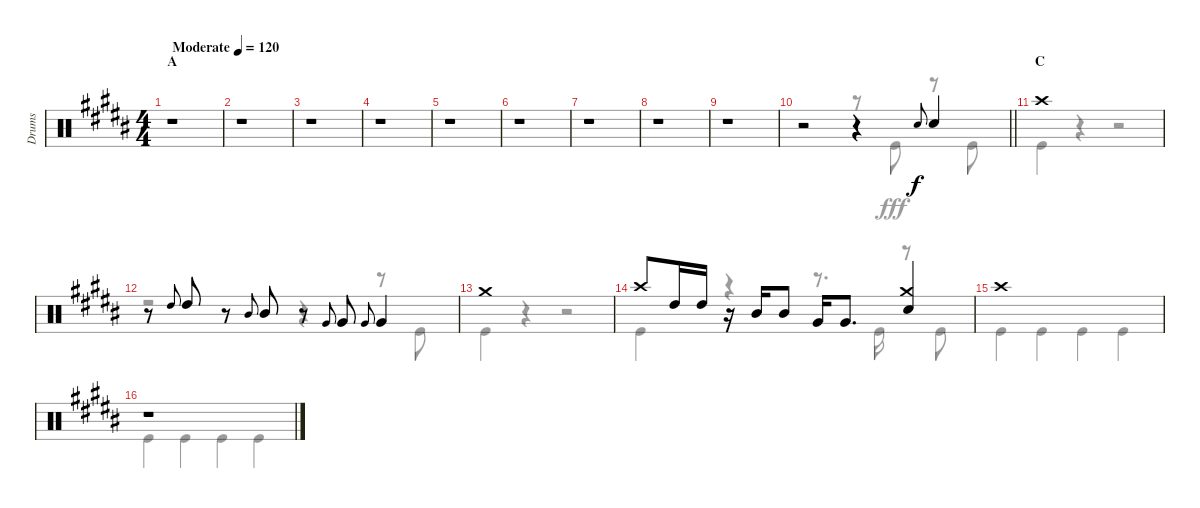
\track ("Drums" "Drums") {instrument percussion}
\staff {score}
\articulation defaults
\voice
\ts (4 4)
\section ("" "A")
\tempo (120 "Moderate")
\clef neutral
\ks b
r.1{dy f} |
r.1 |
r.1 |
r.1 |
r.1 |
r.1 |
r.1 |
r.1 |
r.1 |
\barLineRight lightlight
r.2 r.4 "Snare (hit) 2".8{gr onbeat} "Snare (hit) 2".4 |
\section ("" "C")
"Crash high (hit)".1 |
r.8 "High Tom (hit)".8{gr onbeat} "High Tom (hit)".8 r.8 "Mid Tom (hit)".8{gr onbeat} "Mid Tom (hit)".8 r.8 "Very Low Tom (hit)".8{gr onbeat} "Very Low Tom (hit)".8 "Very Low Tom (hit)".8{gr onbeat} "Very Low Tom (hit)".4 |
"Crash medium (hit)".1 |
"Crash high (hit)".8 "High Tom (hit)".16 "High Tom (hit)".16 r.16 "Mid Tom (hit)".16 "Mid Tom (hit)".8 "Very Low Tom (hit)".16 "Very Low Tom (hit)".8{d} ("Crash medium (hit)" "Snare (hit) 2").4 |
"Crash high (hit)".1 |
r.1
\voice
\clef neutral
\ottava regular
\simile none
\ks b
r.1{dy fff} |
r.1 |
r.1 |
r.1 |
r.1 |
r.1 |
r.1 |
r.1 |
r.1 |
\barLineRight lightlight
r.2 r.8 "Kick (hit)".8 r.8 "Kick (hit)".8 |
"Kick (hit)".4 r.4 r.2 |
r.2 r.4 r.8 "Kick (hit)".8 |
"Kick (hit)".4 r.4 r.2 |
"Kick (hit)".4 r.4 r.8{d} "Kick (hit)".16 r.8 "Kick (hit)".8 |
"Kick (hit)".4 "Kick (hit)".4 "Kick (hit)".4 "Kick (hit)".4 |
"Kick (hit)".4 "Kick (hit)".4 "Kick (hit)".4 "Kick (hit)".4
